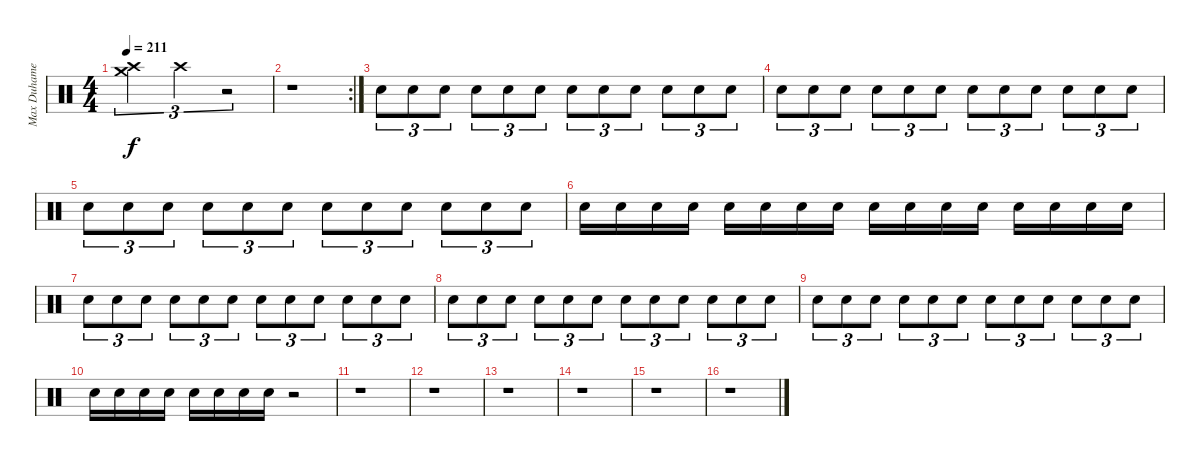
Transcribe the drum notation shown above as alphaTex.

\track ("Max Duhamel" "Max Duhame") {instrument percussion}
\staff {score}
\articulation defaults
\ts (4 4)
\tempo 211
\clef neutral
\ks c
("Crash high (hit)" "Crash medium (hit)").2{tu (3 2) dy f} "Crash high (hit)".2{tu (3 2)} r.2{tu (3 2)} |
\rc 2
r.1 |
"Electric Snare (hit)".8{tu (3 2)} "Electric Snare (hit)".8{tu (3 2)} "Electric Snare (hit)".8{tu (3 2)} "Electric Snare (hit)".8{tu (3 2)} "Electric Snare (hit)".8{tu (3 2)} "Electric Snare (hit)".8{tu (3 2)} "Electric Snare (hit)".8{tu (3 2)} "Electric Snare (hit)".8{tu (3 2)} "Electric Snare (hit)".8{tu (3 2)} "Electric Snare (hit)".8{tu (3 2)} "Electric Snare (hit)".8{tu (3 2)} "Electric Snare (hit)".8{tu (3 2)} |
"Electric Snare (hit)".8{tu (3 2)} "Electric Snare (hit)".8{tu (3 2)} "Electric Snare (hit)".8{tu (3 2)} "Electric Snare (hit)".8{tu (3 2)} "Electric Snare (hit)".8{tu (3 2)} "Electric Snare (hit)".8{tu (3 2)} "Electric Snare (hit)".8{tu (3 2)} "Electric Snare (hit)".8{tu (3 2)} "Electric Snare (hit)".8{tu (3 2)} "Electric Snare (hit)".8{tu (3 2)} "Electric Snare (hit)".8{tu (3 2)} "Electric Snare (hit)".8{tu (3 2)} |
"Electric Snare (hit)".8{tu (3 2)} "Electric Snare (hit)".8{tu (3 2)} "Electric Snare (hit)".8{tu (3 2)} "Electric Snare (hit)".8{tu (3 2)} "Electric Snare (hit)".8{tu (3 2)} "Electric Snare (hit)".8{tu (3 2)} "Electric Snare (hit)".8{tu (3 2)} "Electric Snare (hit)".8{tu (3 2)} "Electric Snare (hit)".8{tu (3 2)} "Electric Snare (hit)".8{tu (3 2)} "Electric Snare (hit)".8{tu (3 2)} "Electric Snare (hit)".8{tu (3 2)} |
"Electric Snare (hit)".16 "Electric Snare (hit)".16 "Electric Snare (hit)".16 "Electric Snare (hit)".16 "Electric Snare (hit)".16 "Electric Snare (hit)".16 "Electric Snare (hit)".16 "Electric Snare (hit)".16 "Electric Snare (hit)".16 "Electric Snare (hit)".16 "Electric Snare (hit)".16 "Electric Snare (hit)".16 "Electric Snare (hit)".16 "Electric Snare (hit)".16 "Electric Snare (hit)".16 "Electric Snare (hit)".16 |
"Electric Snare (hit)".8{tu (3 2)} "Electric Snare (hit)".8{tu (3 2)} "Electric Snare (hit)".8{tu (3 2)} "Electric Snare (hit)".8{tu (3 2)} "Electric Snare (hit)".8{tu (3 2)} "Electric Snare (hit)".8{tu (3 2)} "Electric Snare (hit)".8{tu (3 2)} "Electric Snare (hit)".8{tu (3 2)} "Electric Snare (hit)".8{tu (3 2)} "Electric Snare (hit)".8{tu (3 2)} "Electric Snare (hit)".8{tu (3 2)} "Electric Snare (hit)".8{tu (3 2)} |
"Electric Snare (hit)".8{tu (3 2)} "Electric Snare (hit)".8{tu (3 2)} "Electric Snare (hit)".8{tu (3 2)} "Electric Snare (hit)".8{tu (3 2)} "Electric Snare (hit)".8{tu (3 2)} "Electric Snare (hit)".8{tu (3 2)} "Electric Snare (hit)".8{tu (3 2)} "Electric Snare (hit)".8{tu (3 2)} "Electric Snare (hit)".8{tu (3 2)} "Electric Snare (hit)".8{tu (3 2)} "Electric Snare (hit)".8{tu (3 2)} "Electric Snare (hit)".8{tu (3 2)} |
"Electric Snare (hit)".8{tu (3 2)} "Electric Snare (hit)".8{tu (3 2)} "Electric Snare (hit)".8{tu (3 2)} "Electric Snare (hit)".8{tu (3 2)} "Electric Snare (hit)".8{tu (3 2)} "Electric Snare (hit)".8{tu (3 2)} "Electric Snare (hit)".8{tu (3 2)} "Electric Snare (hit)".8{tu (3 2)} "Electric Snare (hit)".8{tu (3 2)} "Electric Snare (hit)".8{tu (3 2)} "Electric Snare (hit)".8{tu (3 2)} "Electric Snare (hit)".8{tu (3 2)} |
"Electric Snare (hit)".16 "Electric Snare (hit)".16 "Electric Snare (hit)".16 "Electric Snare (hit)".16 "Electric Snare (hit)".16 "Electric Snare (hit)".16 "Electric Snare (hit)".16 "Electric Snare (hit)".16 r.2 |
r.1 |
r.1 |
r.1 |
r.1 |
r.1 |
r.1
